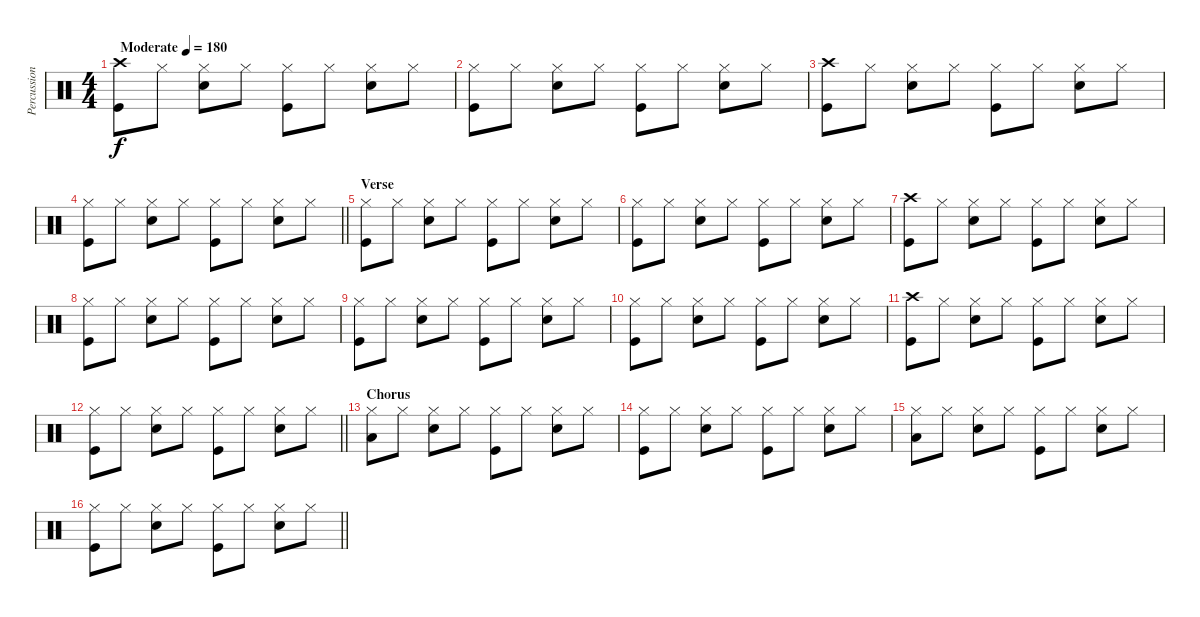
\track ("Percussion" "Percussion") {mute instrument percussion}
\staff {score}
\articulation defaults
\ts (4 4)
\tempo (180 "Moderate")
\clef neutral
\ks c
("Crash high (hit)" "Kick (hit)").8{dy f} "Hi-Hat (closed)".8 ("Hi-Hat (closed)" "Snare (hit) 2").8 "Hi-Hat (closed)".8 ("Hi-Hat (closed)" "Kick (hit)").8 "Hi-Hat (closed)".8 ("Hi-Hat (closed)" "Snare (hit) 2").8 "Hi-Hat (closed)".8 |
("Hi-Hat (closed)" "Kick (hit)").8 "Hi-Hat (closed)".8 ("Hi-Hat (closed)" "Snare (hit) 2").8 "Hi-Hat (closed)".8 ("Hi-Hat (closed)" "Kick (hit)").8 "Hi-Hat (closed)".8 ("Hi-Hat (closed)" "Snare (hit) 2").8 "Hi-Hat (closed)".8 |
("Crash high (hit)" "Kick (hit)").8 "Hi-Hat (closed)".8 ("Hi-Hat (closed)" "Snare (hit) 2").8 "Hi-Hat (closed)".8 ("Hi-Hat (closed)" "Kick (hit)").8 "Hi-Hat (closed)".8 ("Hi-Hat (closed)" "Snare (hit) 2").8 "Hi-Hat (closed)".8 |
\barLineRight lightlight
("Hi-Hat (closed)" "Kick (hit)").8 "Hi-Hat (closed)".8 ("Hi-Hat (closed)" "Snare (hit) 2").8 "Hi-Hat (closed)".8 ("Hi-Hat (closed)" "Kick (hit)").8 "Hi-Hat (closed)".8 ("Hi-Hat (closed)" "Snare (hit) 2").8 "Hi-Hat (closed)".8 |
\section ("" "Verse")
("Hi-Hat (closed)" "Kick (hit)").8 "Hi-Hat (closed)".8 ("Hi-Hat (closed)" "Snare (hit) 2").8 "Hi-Hat (closed)".8 ("Hi-Hat (closed)" "Kick (hit)").8 "Hi-Hat (closed)".8 ("Hi-Hat (closed)" "Snare (hit) 2").8 "Hi-Hat (closed)".8 |
("Hi-Hat (closed)" "Kick (hit)").8 "Hi-Hat (closed)".8 ("Hi-Hat (closed)" "Snare (hit) 2").8 "Hi-Hat (closed)".8 ("Hi-Hat (closed)" "Kick (hit)").8 "Hi-Hat (closed)".8 ("Hi-Hat (closed)" "Snare (hit) 2").8 "Hi-Hat (closed)".8 |
("Crash high (hit)" "Kick (hit)").8 "Hi-Hat (closed)".8 ("Hi-Hat (closed)" "Snare (hit) 2").8 "Hi-Hat (closed)".8 ("Hi-Hat (closed)" "Kick (hit)").8 "Hi-Hat (closed)".8 ("Hi-Hat (closed)" "Snare (hit) 2").8 "Hi-Hat (closed)".8 |
("Hi-Hat (closed)" "Kick (hit)").8 "Hi-Hat (closed)".8 ("Hi-Hat (closed)" "Snare (hit) 2").8 "Hi-Hat (closed)".8 ("Hi-Hat (closed)" "Kick (hit)").8 "Hi-Hat (closed)".8 ("Hi-Hat (closed)" "Snare (hit) 2").8 "Hi-Hat (closed)".8 |
("Hi-Hat (closed)" "Kick (hit)").8 "Hi-Hat (closed)".8 ("Hi-Hat (closed)" "Snare (hit) 2").8 "Hi-Hat (closed)".8 ("Hi-Hat (closed)" "Kick (hit)").8 "Hi-Hat (closed)".8 ("Hi-Hat (closed)" "Snare (hit) 2").8 "Hi-Hat (closed)".8 |
("Hi-Hat (closed)" "Kick (hit)").8 "Hi-Hat (closed)".8 ("Hi-Hat (closed)" "Snare (hit) 2").8 "Hi-Hat (closed)".8 ("Hi-Hat (closed)" "Kick (hit)").8 "Hi-Hat (closed)".8 ("Hi-Hat (closed)" "Snare (hit) 2").8 "Hi-Hat (closed)".8 |
("Crash high (hit)" "Kick (hit)").8 "Hi-Hat (closed)".8 ("Hi-Hat (closed)" "Snare (hit) 2").8 "Hi-Hat (closed)".8 ("Hi-Hat (closed)" "Kick (hit)").8 "Hi-Hat (closed)".8 ("Hi-Hat (closed)" "Snare (hit) 2").8 "Hi-Hat (closed)".8 |
\barLineRight lightlight
("Hi-Hat (closed)" "Kick (hit)").8 "Hi-Hat (closed)".8 ("Hi-Hat (closed)" "Snare (hit) 2").8 "Hi-Hat (closed)".8 ("Hi-Hat (closed)" "Kick (hit)").8 "Hi-Hat (closed)".8 ("Hi-Hat (closed)" "Snare (hit) 2").8 "Hi-Hat (closed)".8 |
\section ("" "Chorus")
("Hi-Hat (closed)" "Low Floor Tom (hit)").8 "Hi-Hat (closed)".8 ("Hi-Hat (closed)" "Snare (hit) 2").8 "Hi-Hat (closed)".8 ("Hi-Hat (closed)" "Kick (hit)").8 "Hi-Hat (closed)".8 ("Hi-Hat (closed)" "Snare (hit) 2").8 "Hi-Hat (closed)".8 |
("Hi-Hat (closed)" "Kick (hit)").8 "Hi-Hat (closed)".8 ("Hi-Hat (closed)" "Snare (hit) 2").8 "Hi-Hat (closed)".8 ("Hi-Hat (closed)" "Kick (hit)").8 "Hi-Hat (closed)".8 ("Hi-Hat (closed)" "Snare (hit) 2").8 "Hi-Hat (closed)".8 |
("Hi-Hat (closed)" "Low Floor Tom (hit)").8 "Hi-Hat (closed)".8 ("Hi-Hat (closed)" "Snare (hit) 2").8 "Hi-Hat (closed)".8 ("Hi-Hat (closed)" "Kick (hit)").8 "Hi-Hat (closed)".8 ("Hi-Hat (closed)" "Snare (hit) 2").8 "Hi-Hat (closed)".8 |
\barLineRight lightlight
("Hi-Hat (closed)" "Kick (hit)").8 "Hi-Hat (closed)".8 ("Hi-Hat (closed)" "Snare (hit) 2").8 "Hi-Hat (closed)".8 ("Hi-Hat (closed)" "Kick (hit)").8 "Hi-Hat (closed)".8 ("Hi-Hat (closed)" "Snare (hit) 2").8 "Hi-Hat (closed)".8
